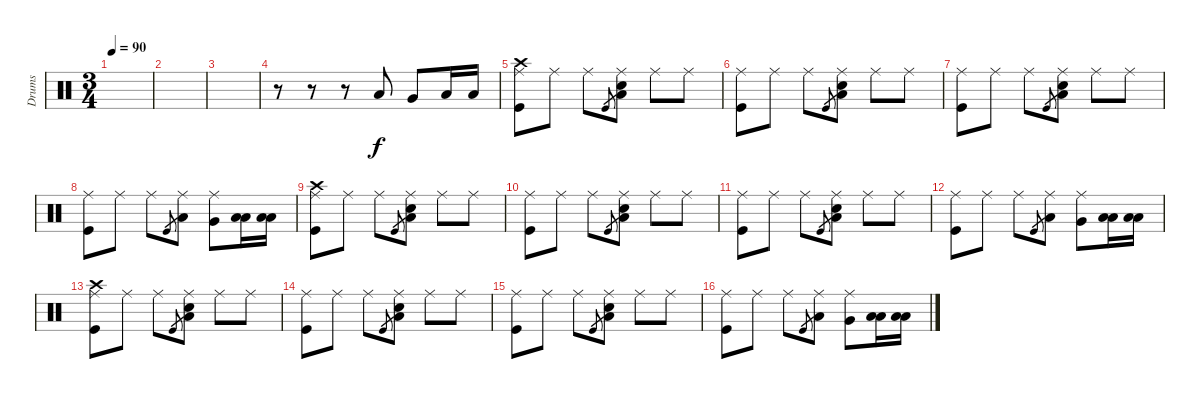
\track ("Drums" "Drums") {instrument percussion}
\staff {score}
\articulation defaults
\ts (3 4)
\tempo 90
\clef neutral
\ks c
|
|
|
r.8 r.8 r.8 "Low Tom (hit)".8 "Very Low Tom (hit)".8 "Low Floor Tom (hit)".16 "Low Floor Tom (hit)".16 |
("Crash high (hit)" "Ride (middle)" "Kick (hit)").8 "Ride (middle)".8 "Ride (middle)".8 "Kick (hit)".8{gr} ("Electric Snare (hit)" "Ride (middle)" "Low Floor Tom (hit)").8 "Ride (middle)".8 "Ride (middle)".8 |
("Ride (middle)" "Kick (hit)").8 "Ride (middle)".8 "Ride (middle)".8 "Kick (hit)".8{gr} ("Electric Snare (hit)" "Ride (middle)" "Low Floor Tom (hit)").8 "Ride (middle)".8 "Ride (middle)".8 |
("Ride (middle)" "Kick (hit)").8 "Ride (middle)".8 "Ride (middle)".8 "Kick (hit)".8{gr} ("Electric Snare (hit)" "Ride (middle)" "Low Floor Tom (hit)").8 "Ride (middle)".8 "Ride (middle)".8 |
("Ride (middle)" "Kick (hit)").8 "Ride (middle)".8 "Ride (middle)".8 "Kick (hit)".8{gr} ("Ride (middle)" "Low Tom (hit)").8 ("Ride (middle)" "Very Low Tom (hit)").8 ("Low Floor Tom (hit)" "Low Floor Tom (hit)").16 ("Low Floor Tom (hit)" "Low Floor Tom (hit)").16 |
("Crash high (hit)" "Ride (middle)" "Kick (hit)").8 "Ride (middle)".8 "Ride (middle)".8 "Kick (hit)".8{gr} ("Electric Snare (hit)" "Ride (middle)" "Low Floor Tom (hit)").8 "Ride (middle)".8 "Ride (middle)".8 |
("Ride (middle)" "Kick (hit)").8 "Ride (middle)".8 "Ride (middle)".8 "Kick (hit)".8{gr} ("Electric Snare (hit)" "Ride (middle)" "Low Floor Tom (hit)").8 "Ride (middle)".8 "Ride (middle)".8 |
("Ride (middle)" "Kick (hit)").8 "Ride (middle)".8 "Ride (middle)".8 "Kick (hit)".8{gr} ("Electric Snare (hit)" "Ride (middle)" "Low Floor Tom (hit)").8 "Ride (middle)".8 "Ride (middle)".8 |
("Ride (middle)" "Kick (hit)").8 "Ride (middle)".8 "Ride (middle)".8 "Kick (hit)".8{gr} ("Ride (middle)" "Low Tom (hit)").8 ("Ride (middle)" "Very Low Tom (hit)").8 ("Low Floor Tom (hit)" "Low Floor Tom (hit)").16 ("Low Floor Tom (hit)" "Low Floor Tom (hit)").16 |
("Crash high (hit)" "Ride (middle)" "Kick (hit)").8 "Ride (middle)".8 "Ride (middle)".8 "Kick (hit)".8{gr} ("Electric Snare (hit)" "Ride (middle)" "Low Floor Tom (hit)").8 "Ride (middle)".8 "Ride (middle)".8 |
("Ride (middle)" "Kick (hit)").8 "Ride (middle)".8 "Ride (middle)".8 "Kick (hit)".8{gr} ("Electric Snare (hit)" "Ride (middle)" "Low Floor Tom (hit)").8 "Ride (middle)".8 "Ride (middle)".8 |
("Ride (middle)" "Kick (hit)").8 "Ride (middle)".8 "Ride (middle)".8 "Kick (hit)".8{gr} ("Electric Snare (hit)" "Ride (middle)" "Low Floor Tom (hit)").8 "Ride (middle)".8 "Ride (middle)".8 |
("Ride (middle)" "Kick (hit)").8 "Ride (middle)".8 "Ride (middle)".8 "Kick (hit)".8{gr} ("Ride (middle)" "Low Tom (hit)").8 ("Ride (middle)" "Very Low Tom (hit)").8 ("Low Floor Tom (hit)" "Low Floor Tom (hit)").16 ("Low Floor Tom (hit)" "Low Floor Tom (hit)").16
